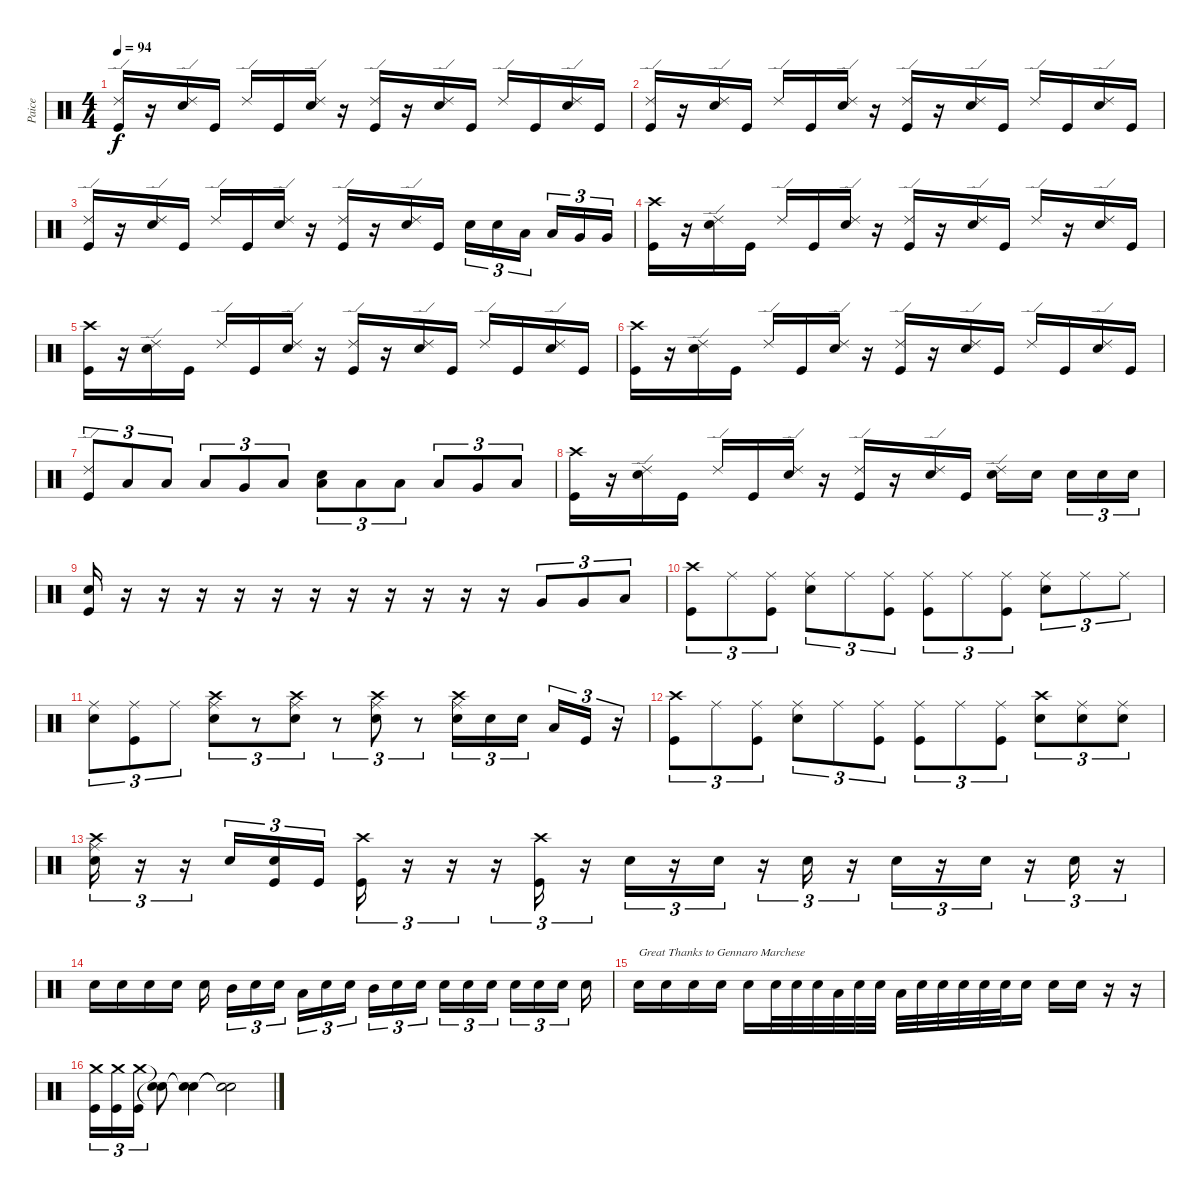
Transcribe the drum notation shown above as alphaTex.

\track ("Paice" "Paice") {instrument percussion}
\staff {score}
\articulation defaults
\ts (4 4)
\tempo 94
\clef neutral
\ks c
("Ride (edge) 2" "Kick (hit)").16{dy f} r.16 ("Ride (edge) 2" "Snare (hit) 2").16 "Kick (hit)".16 "Ride (edge) 2".16 "Kick (hit)".16 ("Ride (edge) 2" "Snare (hit) 2").16 r.16 ("Ride (edge) 2" "Kick (hit)").16 r.16 ("Ride (edge) 2" "Snare (hit) 2").16 "Kick (hit)".16 "Ride (edge) 2".16 "Kick (hit)".16 ("Ride (edge) 2" "Snare (hit) 2").16 "Kick (hit)".16 |
("Ride (edge) 2" "Kick (hit)").16 r.16 ("Ride (edge) 2" "Snare (hit) 2").16 "Kick (hit)".16 "Ride (edge) 2".16 "Kick (hit)".16 ("Ride (edge) 2" "Snare (hit) 2").16 r.16 ("Ride (edge) 2" "Kick (hit)").16 r.16 ("Ride (edge) 2" "Snare (hit) 2").16 "Kick (hit)".16 "Ride (edge) 2".16 "Kick (hit)".16 ("Ride (edge) 2" "Snare (hit) 2").16 "Kick (hit)".16 |
("Ride (edge) 2" "Kick (hit)").16 r.16 ("Ride (edge) 2" "Snare (hit) 2").16 "Kick (hit)".16 "Ride (edge) 2".16 "Kick (hit)".16 ("Ride (edge) 2" "Snare (hit) 2").16 r.16 ("Ride (edge) 2" "Kick (hit)").16 r.16 ("Ride (edge) 2" "Snare (hit) 2").16 "Kick (hit)".16 "Snare (hit) 2".16{tu (3 2)} "Snare (hit) 2".16{tu (3 2)} "Low Tom (hit)".16{tu (3 2)} "Low Tom (hit)".16{tu (3 2)} "Very Low Tom (hit)".16{tu (3 2)} "Very Low Tom (hit)".16{tu (3 2)} |
("Crash high (hit)" "Kick (hit)").16 r.16 ("Ride (edge) 2" "Snare (hit) 2").16 "Kick (hit)".16 "Ride (edge) 2".16 "Kick (hit)".16 ("Ride (edge) 2" "Snare (hit) 2").16 r.16 ("Ride (edge) 2" "Kick (hit)").16 r.16 ("Ride (edge) 2" "Snare (hit) 2").16 "Kick (hit)".16 "Ride (edge) 2".16 r.16 ("Ride (edge) 2" "Snare (hit) 2").16 "Kick (hit)".16 |
("Crash high (hit)" "Kick (hit)").16 r.16 ("Ride (edge) 2" "Snare (hit) 2").16 "Kick (hit)".16 "Ride (edge) 2".16 "Kick (hit)".16 ("Ride (edge) 2" "Snare (hit) 2").16 r.16 ("Ride (edge) 2" "Kick (hit)").16 r.16 ("Ride (edge) 2" "Snare (hit) 2").16 "Kick (hit)".16 "Ride (edge) 2".16 "Kick (hit)".16 ("Ride (edge) 2" "Snare (hit) 2").16 "Kick (hit)".16 |
("Crash high (hit)" "Kick (hit)").16 r.16 ("Ride (edge) 2" "Snare (hit) 2").16 "Kick (hit)".16 "Ride (edge) 2".16 "Kick (hit)".16 ("Ride (edge) 2" "Snare (hit) 2").16 r.16 ("Ride (edge) 2" "Kick (hit)").16 r.16 ("Ride (edge) 2" "Snare (hit) 2").16 "Kick (hit)".16 "Ride (edge) 2".16 "Kick (hit)".16 ("Ride (edge) 2" "Snare (hit) 2").16 "Kick (hit)".16 |
("Ride (edge) 2" "Kick (hit)").8{tu (3 2)} "Low Tom (hit)".8{tu (3 2)} "Low Tom (hit)".8{tu (3 2)} "Low Tom (hit)".8{tu (3 2)} "Very Low Tom (hit)".8{tu (3 2)} "Low Floor Tom (hit)".8{tu (3 2)} ("Low Tom (hit)" "Snare (hit) 2").8{tu (3 2)} "Low Tom (hit)".8{tu (3 2)} "Low Tom (hit)".8{tu (3 2)} "Low Tom (hit)".8{tu (3 2)} "Very Low Tom (hit)".8{tu (3 2)} "Low Floor Tom (hit)".8{tu (3 2)} |
("Crash high (hit)" "Kick (hit)").16 r.16 ("Ride (edge) 2" "Snare (hit) 2").16 "Kick (hit)".16 "Ride (edge) 2".16 "Kick (hit)".16 ("Ride (edge) 2" "Snare (hit) 2").16 r.16 ("Ride (edge) 2" "Kick (hit)").16 r.16 ("Ride (edge) 2" "Snare (hit) 2").16 "Kick (hit)".16 ("Ride (edge) 2" "Snare (hit) 2").16 "Snare (hit) 2".16 "Snare (hit) 2".16{tu (3 2)} "Snare (hit) 2".16{tu (3 2)} "Snare (hit) 2".16{tu (3 2)} |
("Snare (hit) 2" "Kick (hit)").16 r.16 r.16 r.16 r.16 r.16 r.16 r.16 r.16 r.16 r.16 r.16 "Very Low Tom (hit)".8{tu (3 2)} "Very Low Tom (hit)".8{tu (3 2)} "Low Floor Tom (hit)".8{tu (3 2)} |
("Crash high (hit)" "Kick (hit)").8{tu (3 2)} "Ride (middle)".8{tu (3 2)} ("Ride (middle)" "Kick (hit)").8{tu (3 2)} ("Ride (middle)" "Snare (hit) 2").8{tu (3 2)} "Ride (middle)".8{tu (3 2)} ("Ride (middle)" "Kick (hit)").8{tu (3 2)} ("Ride (middle)" "Kick (hit)").8{tu (3 2)} "Ride (middle)".8{tu (3 2)} ("Ride (middle)" "Kick (hit)").8{tu (3 2)} ("Ride (middle)" "Snare (hit) 2").8{tu (3 2)} "Ride (middle)".8{tu (3 2)} "Ride (middle)".8{tu (3 2)} |
("Ride (middle)" "Snare (hit) 2").8{tu (3 2)} ("Ride (middle)" "Kick (hit)").8{tu (3 2)} "Ride (middle)".8{tu (3 2)} ("Crash high (hit)" "Ride (middle)" "Snare (hit) 2").8{tu (3 2)} r.8{tu (3 2)} ("Crash high (hit)" "Ride (middle)" "Snare (hit) 2").8{tu (3 2)} r.8{tu (3 2)} ("Crash high (hit)" "Ride (middle)" "Snare (hit) 2").8{tu (3 2)} r.8{tu (3 2)} ("Crash high (hit)" "Ride (middle)" "Snare (hit) 2").16{tu (3 2)} "Snare (hit) 2".16{tu (3 2)} "Snare (hit) 2".16{tu (3 2)} "Low Tom (hit)".16{tu (3 2)} "Kick (hit)".16{tu (3 2)} r.16{tu (3 2)} |
("Crash high (hit)" "Kick (hit)").8{tu (3 2)} "Ride (middle)".8{tu (3 2)} ("Ride (middle)" "Kick (hit)").8{tu (3 2)} ("Ride (middle)" "Snare (hit) 2").8{tu (3 2)} "Ride (middle)".8{tu (3 2)} ("Ride (middle)" "Kick (hit)").8{tu (3 2)} ("Ride (middle)" "Kick (hit)").8{tu (3 2)} "Ride (middle)".8{tu (3 2)} ("Ride (middle)" "Kick (hit)").8{tu (3 2)} ("Crash high (hit)" "Snare (hit) 2").8{tu (3 2)} ("Ride (middle)" "Snare (hit) 2").8{tu (3 2)} ("Ride (middle)" "Snare (hit) 2").8{tu (3 2)} |
("Crash high (hit)" "Ride (middle)" "Snare (hit) 2").16{tu (3 2)} r.16{tu (3 2)} r.16{tu (3 2)} "Snare (hit) 2".16{tu (3 2)} ("Snare (hit) 2" "Kick (hit)").16{tu (3 2)} "Kick (hit)".16{tu (3 2)} ("Crash high (hit)" "Kick (hit)").16{tu (3 2)} r.16{tu (3 2)} r.16{tu (3 2)} r.16{tu (3 2)} ("Crash high (hit)" "Kick (hit)").16{tu (3 2)} r.16{tu (3 2)} "Snare (hit) 2".16{tu (3 2)} r.16{tu (3 2)} "Snare (hit) 2".16{tu (3 2)} r.16{tu (3 2)} "Snare (hit) 2".16{tu (3 2)} r.16{tu (3 2)} "Snare (hit) 2".16{tu (3 2)} r.16{tu (3 2)} "Snare (hit) 2".16{tu (3 2)} r.16{tu (3 2)} "Snare (hit) 2".16{tu (3 2)} r.16{tu (3 2)} |
"Snare (hit) 2".16 "Snare (hit) 2".16 "Snare (hit) 2".16 "Snare (hit) 2".16 "Snare (hit) 2".16 "Mid Tom (hit)".16{tu (3 2)} "Snare (hit) 2".16{tu (3 2)} "Snare (hit) 2".16{tu (3 2)} "Low Tom (hit)".16{tu (3 2)} "Snare (hit) 2".16{tu (3 2)} "Snare (hit) 2".16{tu (3 2)} "Mid Tom (hit)".16{tu (3 2)} "Snare (hit) 2".16{tu (3 2)} "Snare (hit) 2".16{tu (3 2)} "Snare (hit) 2".16{tu (3 2)} "Snare (hit) 2".16{tu (3 2)} "Snare (hit) 2".16{tu (3 2)} "Snare (hit) 2".16{tu (3 2)} "Snare (hit) 2".16{tu (3 2)} "Snare (hit) 2".16{tu (3 2)} "Snare (hit) 2".16 |
"Snare (hit) 2".16{txt "Great Thanks to Gennaro Marchese"} "Snare (hit) 2".16 "Snare (hit) 2".16 "Snare (hit) 2".16 "Snare (hit) 2".16 "Snare (hit) 2".32 "Snare (hit) 2".32 "Snare (hit) 2".32 "Low Tom (hit)".32 "Snare (hit) 2".32 "Snare (hit) 2".32 "Low Tom (hit)".32 "Snare (hit) 2".32 "Snare (hit) 2".32 "Snare (hit) 2".32 "Snare (hit) 2".32 "Snare (hit) 2".32 "Snare (hit) 2".16 "Snare (hit) 2".16 "Snare (hit) 2".16 r.16 r.16 |
("Crash medium (hit)" "Kick (hit)").16{tu (3 2)} ("Crash medium (hit)" "Kick (hit)").16{tu (3 2)} ("Crash medium (hit)" "Kick (hit)").16{tu (3 2)} ("Snare (hit)"{t} "Snare (hit)"{t}).8 ("Snare (hit)"{t} "Snare (hit)"{t}).4 ("Snare (hit)"{t} "Snare (hit)"{t}).2
